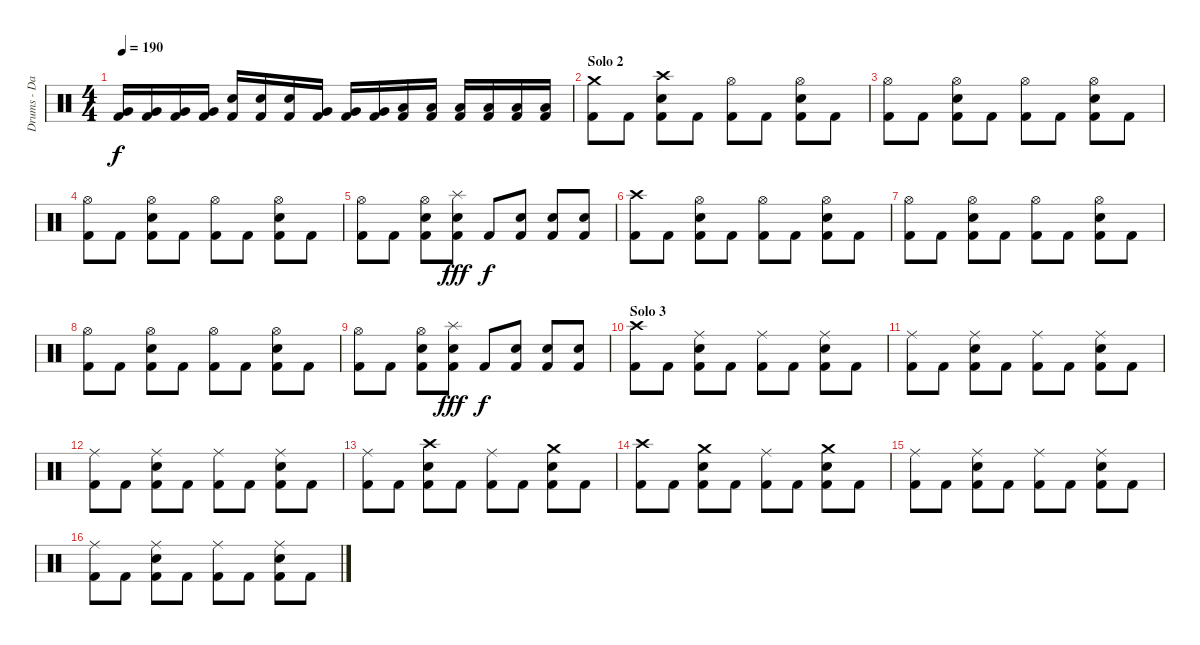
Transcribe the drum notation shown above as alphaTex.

\track ("Drums - Daniel Zimmermann" "Drums - Da") {instrument percussion}
\staff {score}
\articulation defaults
\ts (4 4)
\tempo 190
\clef neutral
\ks c
("Kick (hit) 2" "Very Low Tom (hit)").16{dy f} ("Kick (hit) 2" "Very Low Tom (hit)").16 ("Kick (hit) 2" "Very Low Tom (hit)").16 ("Kick (hit) 2" "Very Low Tom (hit)").16 ("Kick (hit) 2" "Electric Snare (hit)").16 ("Kick (hit) 2" "Electric Snare (hit)").16 ("Kick (hit) 2" "Electric Snare (hit)").16 ("Kick (hit) 2" "Very Low Tom (hit)").16 ("Kick (hit) 2" "Very Low Tom (hit)").16 ("Kick (hit) 2" "Very Low Tom (hit)").16 ("Kick (hit) 2" "Low Floor Tom (hit)").16 ("Kick (hit) 2" "Low Floor Tom (hit)").16 ("Kick (hit) 2" "Low Floor Tom (hit)").16 ("Kick (hit) 2" "Low Floor Tom (hit)").16 ("Kick (hit) 2" "Low Floor Tom (hit)").16 ("Kick (hit) 2" "Low Floor Tom (hit)").16 |
\section ("" "Solo 2")
("Kick (hit) 2" "Crash medium (hit)").8 "Kick (hit) 2".8 ("Kick (hit) 2" "Electric Snare (hit)" "Crash high (hit)").8 "Kick (hit) 2".8 ("Kick (hit) 2" "Hi-Hat (open)").8 "Kick (hit) 2".8 ("Kick (hit) 2" "Electric Snare (hit)" "Hi-Hat (open)").8 "Kick (hit) 2".8 |
("Kick (hit) 2" "Hi-Hat (open)").8 "Kick (hit) 2".8 ("Kick (hit) 2" "Electric Snare (hit)" "Hi-Hat (open)").8 "Kick (hit) 2".8 ("Kick (hit) 2" "Hi-Hat (open)").8 "Kick (hit) 2".8 ("Kick (hit) 2" "Electric Snare (hit)" "Hi-Hat (open)").8 "Kick (hit) 2".8 |
("Kick (hit) 2" "Hi-Hat (open)").8 "Kick (hit) 2".8 ("Kick (hit) 2" "Electric Snare (hit)" "Hi-Hat (open)").8 "Kick (hit) 2".8 ("Kick (hit) 2" "Hi-Hat (open)").8 "Kick (hit) 2".8 ("Kick (hit) 2" "Electric Snare (hit)" "Hi-Hat (open)").8 "Kick (hit) 2".8 |
("Kick (hit) 2" "Hi-Hat (open)").8 "Kick (hit) 2".8 ("Kick (hit) 2" "Electric Snare (hit)" "Hi-Hat (open)").8 ("Kick (hit) 2" "Electric Snare (hit)" "Splash (hit)").8{dy fff} "Kick (hit) 2".8{dy f} ("Kick (hit) 2" "Electric Snare (hit)").8 ("Kick (hit) 2" "Electric Snare (hit)").8 ("Kick (hit) 2" "Electric Snare (hit)").8 |
("Kick (hit) 2" "Crash high (hit)").8 "Kick (hit) 2".8 ("Kick (hit) 2" "Electric Snare (hit)" "Hi-Hat (open)").8 "Kick (hit) 2".8 ("Kick (hit) 2" "Hi-Hat (open)").8 "Kick (hit) 2".8 ("Kick (hit) 2" "Electric Snare (hit)" "Hi-Hat (open)").8 "Kick (hit) 2".8 |
("Kick (hit) 2" "Hi-Hat (open)").8 "Kick (hit) 2".8 ("Kick (hit) 2" "Electric Snare (hit)" "Hi-Hat (open)").8 "Kick (hit) 2".8 ("Kick (hit) 2" "Hi-Hat (open)").8 "Kick (hit) 2".8 ("Kick (hit) 2" "Electric Snare (hit)" "Hi-Hat (open)").8 "Kick (hit) 2".8 |
("Kick (hit) 2" "Hi-Hat (open)").8 "Kick (hit) 2".8 ("Kick (hit) 2" "Electric Snare (hit)" "Hi-Hat (open)").8 "Kick (hit) 2".8 ("Kick (hit) 2" "Hi-Hat (open)").8 "Kick (hit) 2".8 ("Kick (hit) 2" "Electric Snare (hit)" "Hi-Hat (open)").8 "Kick (hit) 2".8 |
("Kick (hit) 2" "Hi-Hat (open)").8 "Kick (hit) 2".8 ("Kick (hit) 2" "Electric Snare (hit)" "Hi-Hat (open)").8 ("Kick (hit) 2" "Electric Snare (hit)" "Splash (hit)").8{dy fff} "Kick (hit) 2".8{dy f} ("Kick (hit) 2" "Electric Snare (hit)").8 ("Kick (hit) 2" "Electric Snare (hit)").8 ("Kick (hit) 2" "Electric Snare (hit)").8 |
\section ("" "Solo 3")
("Kick (hit) 2" "Crash high (hit)").8 "Kick (hit) 2".8 ("Kick (hit) 2" "Electric Snare (hit)" "Ride (middle)").8 "Kick (hit) 2".8 ("Kick (hit) 2" "Ride (middle)").8 "Kick (hit) 2".8 ("Kick (hit) 2" "Electric Snare (hit)" "Ride (middle)").8 "Kick (hit) 2".8 |
("Kick (hit) 2" "Ride (middle)").8 "Kick (hit) 2".8 ("Kick (hit) 2" "Electric Snare (hit)" "Ride (middle)").8 "Kick (hit) 2".8 ("Kick (hit) 2" "Ride (middle)").8 "Kick (hit) 2".8 ("Kick (hit) 2" "Electric Snare (hit)" "Ride (middle)").8 "Kick (hit) 2".8 |
("Kick (hit) 2" "Ride (middle)").8 "Kick (hit) 2".8 ("Kick (hit) 2" "Electric Snare (hit)" "Ride (middle)").8 "Kick (hit) 2".8 ("Kick (hit) 2" "Ride (middle)").8 "Kick (hit) 2".8 ("Kick (hit) 2" "Electric Snare (hit)" "Ride (middle)").8 "Kick (hit) 2".8 |
("Kick (hit) 2" "Ride (middle)").8 "Kick (hit) 2".8 ("Kick (hit) 2" "Electric Snare (hit)" "Crash high (hit)").8 "Kick (hit) 2".8 ("Kick (hit) 2" "Ride (middle)").8 "Kick (hit) 2".8 ("Kick (hit) 2" "Electric Snare (hit)" "Crash medium (hit)").8 "Kick (hit) 2".8 |
("Kick (hit) 2" "Crash high (hit)").8 "Kick (hit) 2".8 ("Kick (hit) 2" "Electric Snare (hit)" "Crash medium (hit)").8 "Kick (hit) 2".8 ("Kick (hit) 2" "Ride (middle)").8 "Kick (hit) 2".8 ("Kick (hit) 2" "Electric Snare (hit)" "Crash medium (hit)").8 "Kick (hit) 2".8 |
("Kick (hit) 2" "Ride (middle)").8 "Kick (hit) 2".8 ("Kick (hit) 2" "Electric Snare (hit)" "Ride (middle)").8 "Kick (hit) 2".8 ("Kick (hit) 2" "Ride (middle)").8 "Kick (hit) 2".8 ("Kick (hit) 2" "Electric Snare (hit)" "Ride (middle)").8 "Kick (hit) 2".8 |
("Kick (hit) 2" "Ride (middle)").8 "Kick (hit) 2".8 ("Kick (hit) 2" "Electric Snare (hit)" "Ride (middle)").8 "Kick (hit) 2".8 ("Kick (hit) 2" "Ride (middle)").8 "Kick (hit) 2".8 ("Kick (hit) 2" "Electric Snare (hit)" "Ride (middle)").8 "Kick (hit) 2".8
